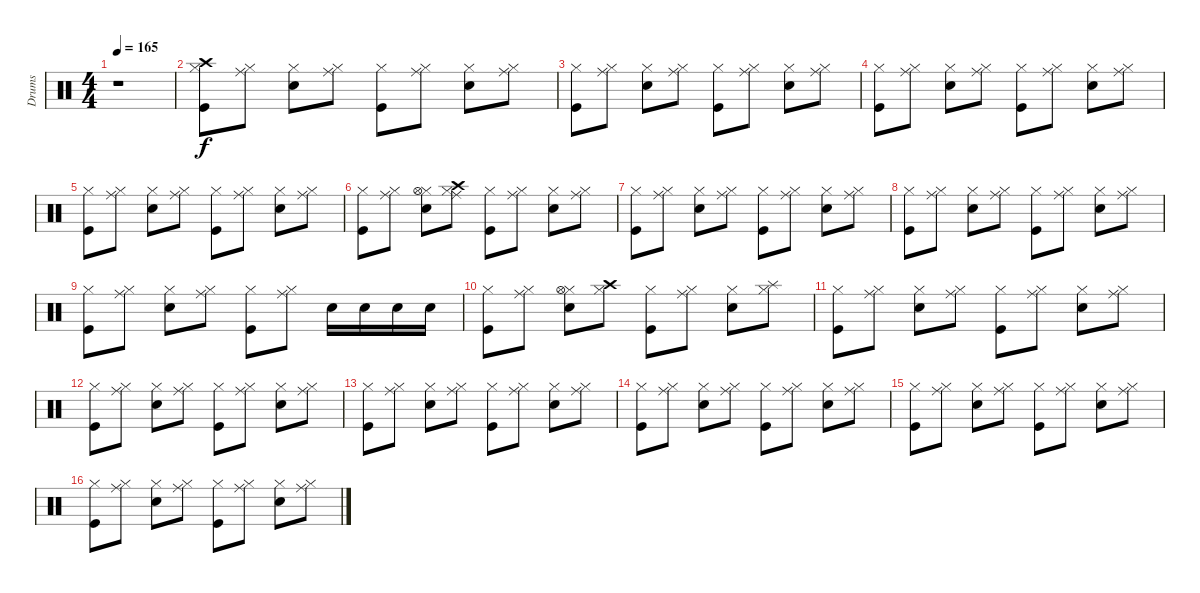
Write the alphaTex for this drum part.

\track ("Drums" "Drums") {instrument percussion}
\staff {score}
\articulation defaults
\ts (4 4)
\tempo 165
\clef neutral
\ks c
r.1{dy f} |
("Hi-Hat (closed)" "Crash high (hit)" "Kick (hit)").8 ("Hi-Hat (closed)" "Ride (middle)").8 ("Hi-Hat (closed)" "Electric Snare (hit)").8 ("Hi-Hat (closed)" "Ride (middle)").8 ("Hi-Hat (closed)" "Kick (hit)").8 ("Hi-Hat (closed)" "Ride (middle)").8 ("Hi-Hat (closed)" "Electric Snare (hit)").8 ("Hi-Hat (closed)" "Ride (middle)").8 |
("Hi-Hat (closed)" "Kick (hit)").8 ("Hi-Hat (closed)" "Ride (middle)").8 ("Hi-Hat (closed)" "Electric Snare (hit)").8 ("Hi-Hat (closed)" "Ride (middle)").8 ("Hi-Hat (closed)" "Kick (hit)").8 ("Hi-Hat (closed)" "Ride (middle)").8 ("Hi-Hat (closed)" "Electric Snare (hit)").8 ("Hi-Hat (closed)" "Ride (middle)").8 |
("Hi-Hat (closed)" "Kick (hit)").8 ("Hi-Hat (closed)" "Ride (middle)").8 ("Hi-Hat (closed)" "Electric Snare (hit)").8 ("Hi-Hat (closed)" "Ride (middle)").8 ("Hi-Hat (closed)" "Kick (hit)").8 ("Hi-Hat (closed)" "Ride (middle)").8 ("Hi-Hat (closed)" "Electric Snare (hit)").8 ("Hi-Hat (closed)" "Ride (middle)").8 |
("Hi-Hat (closed)" "Kick (hit)").8 ("Hi-Hat (closed)" "Ride (middle)").8 ("Hi-Hat (closed)" "Electric Snare (hit)").8 ("Hi-Hat (closed)" "Ride (middle)").8 ("Hi-Hat (closed)" "Kick (hit)").8 ("Hi-Hat (closed)" "Ride (middle)").8 ("Hi-Hat (closed)" "Electric Snare (hit)").8 ("Hi-Hat (closed)" "Ride (middle)").8 |
("Hi-Hat (closed)" "Kick (hit)").8 ("Hi-Hat (closed)" "Ride (middle)").8 ("Hi-Hat (closed)" "Hi-Hat (open)" "Electric Snare (hit)").8 ("Hi-Hat (closed)" "Ride (middle)" "Crash high (hit)").8 ("Hi-Hat (closed)" "Kick (hit)").8 ("Hi-Hat (closed)" "Ride (middle)").8 ("Hi-Hat (closed)" "Electric Snare (hit)").8 ("Hi-Hat (closed)" "Ride (middle)").8 |
("Hi-Hat (closed)" "Kick (hit)").8 ("Hi-Hat (closed)" "Ride (middle)").8 ("Hi-Hat (closed)" "Electric Snare (hit)").8 ("Hi-Hat (closed)" "Ride (middle)").8 ("Hi-Hat (closed)" "Kick (hit)").8 ("Hi-Hat (closed)" "Ride (middle)").8 ("Hi-Hat (closed)" "Electric Snare (hit)").8 ("Hi-Hat (closed)" "Ride (middle)").8 |
("Hi-Hat (closed)" "Kick (hit)").8 ("Hi-Hat (closed)" "Ride (middle)").8 ("Hi-Hat (closed)" "Electric Snare (hit)").8 ("Hi-Hat (closed)" "Ride (middle)").8 ("Hi-Hat (closed)" "Kick (hit)").8 ("Hi-Hat (closed)" "Ride (middle)").8 ("Hi-Hat (closed)" "Electric Snare (hit)").8 ("Hi-Hat (closed)" "Ride (middle)").8 |
("Hi-Hat (closed)" "Kick (hit)").8 ("Hi-Hat (closed)" "Ride (middle)").8 ("Hi-Hat (closed)" "Electric Snare (hit)").8 ("Hi-Hat (closed)" "Ride (middle)").8 ("Hi-Hat (closed)" "Kick (hit)").8 ("Hi-Hat (closed)" "Ride (middle)").8 "Electric Snare (hit)".16 "Electric Snare (hit)".16 "Electric Snare (hit)".16 "Electric Snare (hit)".16 |
("Hi-Hat (closed)" "Kick (hit)").8 ("Hi-Hat (closed)" "Ride (middle)").8 ("Hi-Hat (closed)" "Hi-Hat (open)" "Electric Snare (hit)").8 ("Hi-Hat (closed)" "Crash high (hit)").8 ("Hi-Hat (closed)" "Kick (hit)").8 ("Hi-Hat (closed)" "Ride (middle)").8 ("Hi-Hat (closed)" "Electric Snare (hit)").8 ("Hi-Hat (closed)" "Splash (hit)").8 |
("Hi-Hat (closed)" "Kick (hit)").8 ("Hi-Hat (closed)" "Ride (middle)").8 ("Hi-Hat (closed)" "Electric Snare (hit)").8 ("Hi-Hat (closed)" "Ride (middle)").8 ("Hi-Hat (closed)" "Kick (hit)").8 ("Hi-Hat (closed)" "Ride (middle)").8 ("Hi-Hat (closed)" "Electric Snare (hit)").8 ("Hi-Hat (closed)" "Ride (middle)").8 |
("Hi-Hat (closed)" "Kick (hit)").8 ("Hi-Hat (closed)" "Ride (middle)").8 ("Hi-Hat (closed)" "Electric Snare (hit)").8 ("Hi-Hat (closed)" "Ride (middle)").8 ("Hi-Hat (closed)" "Kick (hit)").8 ("Hi-Hat (closed)" "Ride (middle)").8 ("Hi-Hat (closed)" "Electric Snare (hit)").8 ("Hi-Hat (closed)" "Ride (middle)").8 |
("Hi-Hat (closed)" "Kick (hit)").8 ("Hi-Hat (closed)" "Ride (middle)").8 ("Hi-Hat (closed)" "Electric Snare (hit)").8 ("Hi-Hat (closed)" "Ride (middle)").8 ("Hi-Hat (closed)" "Kick (hit)").8 ("Hi-Hat (closed)" "Ride (middle)").8 ("Hi-Hat (closed)" "Electric Snare (hit)").8 ("Hi-Hat (closed)" "Ride (middle)").8 |
("Hi-Hat (closed)" "Kick (hit)").8 ("Hi-Hat (closed)" "Ride (middle)").8 ("Hi-Hat (closed)" "Electric Snare (hit)").8 ("Hi-Hat (closed)" "Ride (middle)").8 ("Hi-Hat (closed)" "Kick (hit)").8 ("Hi-Hat (closed)" "Ride (middle)").8 ("Hi-Hat (closed)" "Electric Snare (hit)").8 ("Hi-Hat (closed)" "Ride (middle)").8 |
("Hi-Hat (closed)" "Kick (hit)").8 ("Hi-Hat (closed)" "Ride (middle)").8 ("Hi-Hat (closed)" "Electric Snare (hit)").8 ("Hi-Hat (closed)" "Ride (middle)").8 ("Hi-Hat (closed)" "Kick (hit)").8 ("Hi-Hat (closed)" "Ride (middle)").8 ("Hi-Hat (closed)" "Electric Snare (hit)").8 ("Hi-Hat (closed)" "Ride (middle)").8 |
("Hi-Hat (closed)" "Kick (hit)").8 ("Hi-Hat (closed)" "Ride (middle)").8 ("Hi-Hat (closed)" "Electric Snare (hit)").8 ("Hi-Hat (closed)" "Ride (middle)").8 ("Hi-Hat (closed)" "Kick (hit)").8 ("Hi-Hat (closed)" "Ride (middle)").8 ("Hi-Hat (closed)" "Electric Snare (hit)").8 ("Hi-Hat (closed)" "Ride (middle)").8
